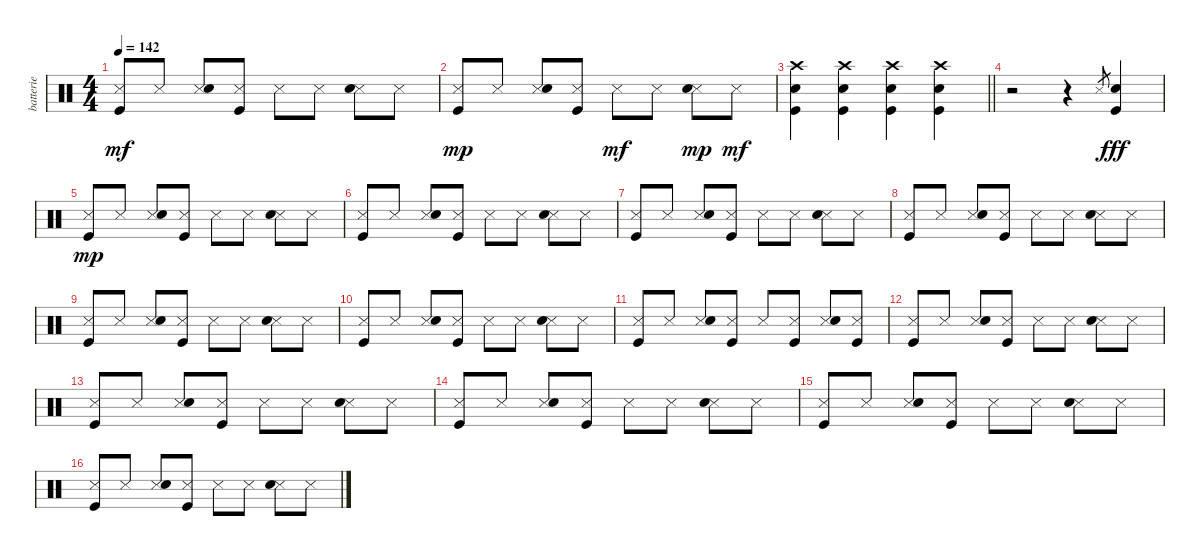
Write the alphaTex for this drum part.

\track ("batterie" "batterie") {instrument percussion}
\staff {score}
\articulation defaults
\ts (4 4)
\tempo 142
\clef neutral
\ks c
("Snare (side stick) 3" "Kick (hit)").8{dy mf} "Snare (side stick) 3".8 ("Snare (side stick) 3" "Electric Snare (hit)").8 ("Snare (side stick) 3" "Kick (hit)").8 "Snare (side stick) 3".8 "Snare (side stick) 3".8 ("Snare (side stick) 3" "Electric Snare (hit)").8 "Snare (side stick) 3".8 |
("Snare (side stick) 3" "Kick (hit)").8{dy mp} "Snare (side stick) 3".8 ("Snare (side stick) 3" "Electric Snare (hit)").8 ("Snare (side stick) 3" "Kick (hit)").8 "Snare (side stick) 3".8{dy mf} "Snare (side stick) 3".8 ("Snare (side stick) 3" "Electric Snare (hit)").8{dy mp} "Snare (side stick) 3".8{dy mf} |
\barLineRight lightlight
("Crash high (hit)" "Electric Snare (hit)" "Kick (hit)").4 ("Crash high (hit)" "Electric Snare (hit)" "Kick (hit)").4 ("Crash high (hit)" "Electric Snare (hit)" "Kick (hit)").4 ("Crash high (hit)" "Electric Snare (hit)" "Kick (hit)").4 |
r.2 r.4 "Snare (side stick) 3".8{gr} ("Electric Snare (hit)" "Kick (hit)").4{dy fff} |
("Snare (side stick) 3" "Kick (hit)").8{dy mp} "Snare (side stick) 3".8 ("Snare (side stick) 3" "Electric Snare (hit)").8 ("Snare (side stick) 3" "Kick (hit)").8 "Snare (side stick) 3".8 "Snare (side stick) 3".8 ("Snare (side stick) 3" "Electric Snare (hit)").8 "Snare (side stick) 3".8 |
("Snare (side stick) 3" "Kick (hit)").8 "Snare (side stick) 3".8 ("Snare (side stick) 3" "Electric Snare (hit)").8 ("Snare (side stick) 3" "Kick (hit)").8 "Snare (side stick) 3".8 "Snare (side stick) 3".8 ("Snare (side stick) 3" "Electric Snare (hit)").8 "Snare (side stick) 3".8 |
("Snare (side stick) 3" "Kick (hit)").8 "Snare (side stick) 3".8 ("Snare (side stick) 3" "Electric Snare (hit)").8 ("Snare (side stick) 3" "Kick (hit)").8 "Snare (side stick) 3".8 "Snare (side stick) 3".8 ("Snare (side stick) 3" "Electric Snare (hit)").8 "Snare (side stick) 3".8 |
("Snare (side stick) 3" "Kick (hit)").8 "Snare (side stick) 3".8 ("Snare (side stick) 3" "Electric Snare (hit)").8 ("Snare (side stick) 3" "Kick (hit)").8 "Snare (side stick) 3".8 "Snare (side stick) 3".8 ("Snare (side stick) 3" "Electric Snare (hit)").8 "Snare (side stick) 3".8 |
("Snare (side stick) 3" "Kick (hit)").8 "Snare (side stick) 3".8 ("Snare (side stick) 3" "Electric Snare (hit)").8 ("Snare (side stick) 3" "Kick (hit)").8 "Snare (side stick) 3".8 "Snare (side stick) 3".8 ("Snare (side stick) 3" "Electric Snare (hit)").8 "Snare (side stick) 3".8 |
("Snare (side stick) 3" "Kick (hit)").8 "Snare (side stick) 3".8 ("Snare (side stick) 3" "Electric Snare (hit)").8 ("Snare (side stick) 3" "Kick (hit)").8 "Snare (side stick) 3".8 "Snare (side stick) 3".8 ("Snare (side stick) 3" "Electric Snare (hit)").8 "Snare (side stick) 3".8 |
("Snare (side stick) 3" "Kick (hit)").8 "Snare (side stick) 3".8 ("Snare (side stick) 3" "Electric Snare (hit)").8 ("Snare (side stick) 3" "Kick (hit)").8 "Snare (side stick) 3".8 ("Snare (side stick) 3" "Kick (hit)").8 ("Snare (side stick) 3" "Electric Snare (hit)").8 ("Snare (side stick) 3" "Kick (hit)").8 |
("Snare (side stick) 3" "Kick (hit)").8 "Snare (side stick) 3".8 ("Snare (side stick) 3" "Electric Snare (hit)").8 ("Snare (side stick) 3" "Kick (hit)").8 "Snare (side stick) 3".8 "Snare (side stick) 3".8 ("Snare (side stick) 3" "Electric Snare (hit)").8 "Snare (side stick) 3".8 |
("Snare (side stick) 3" "Kick (hit)").8 "Snare (side stick) 3".8 ("Snare (side stick) 3" "Electric Snare (hit)").8 ("Snare (side stick) 3" "Kick (hit)").8 "Snare (side stick) 3".8 "Snare (side stick) 3".8 ("Snare (side stick) 3" "Electric Snare (hit)").8 "Snare (side stick) 3".8 |
("Snare (side stick) 3" "Kick (hit)").8 "Snare (side stick) 3".8 ("Snare (side stick) 3" "Electric Snare (hit)").8 ("Snare (side stick) 3" "Kick (hit)").8 "Snare (side stick) 3".8 "Snare (side stick) 3".8 ("Snare (side stick) 3" "Electric Snare (hit)").8 "Snare (side stick) 3".8 |
("Snare (side stick) 3" "Kick (hit)").8 "Snare (side stick) 3".8 ("Snare (side stick) 3" "Electric Snare (hit)").8 ("Snare (side stick) 3" "Kick (hit)").8 "Snare (side stick) 3".8 "Snare (side stick) 3".8 ("Snare (side stick) 3" "Electric Snare (hit)").8 "Snare (side stick) 3".8 |
("Snare (side stick) 3" "Kick (hit)").8 "Snare (side stick) 3".8 ("Snare (side stick) 3" "Electric Snare (hit)").8 ("Snare (side stick) 3" "Kick (hit)").8 "Snare (side stick) 3".8 "Snare (side stick) 3".8 ("Snare (side stick) 3" "Electric Snare (hit)").8 "Snare (side stick) 3".8
